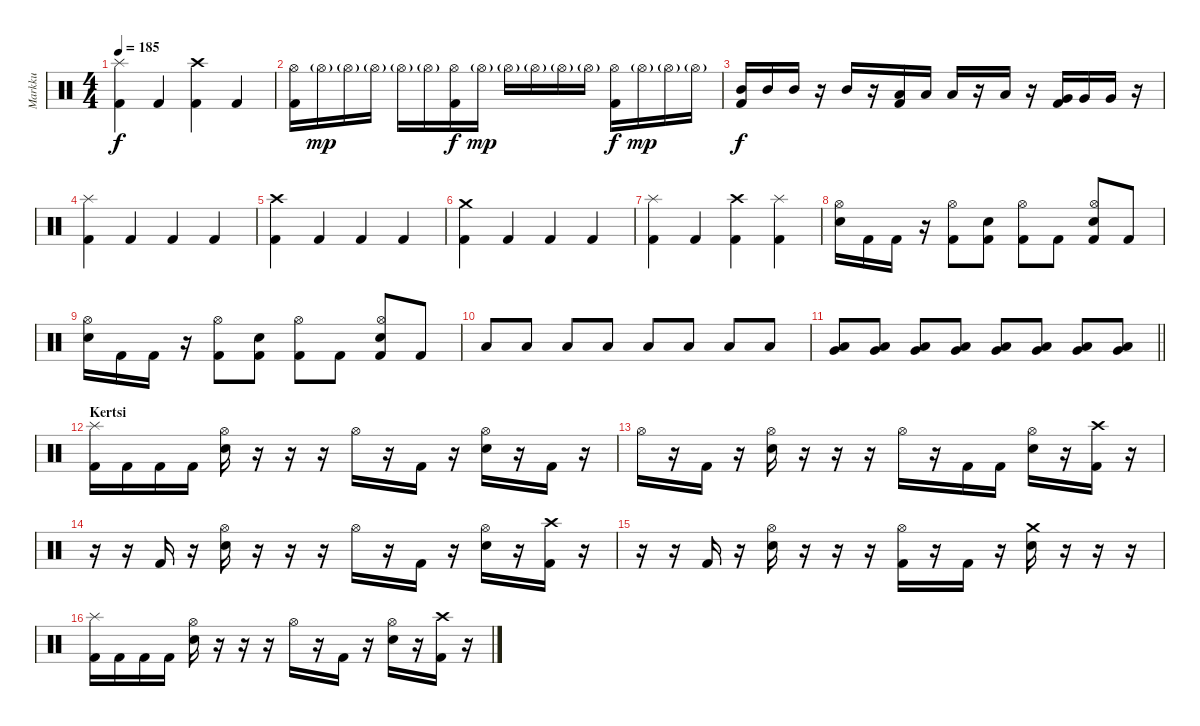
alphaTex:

\track ("Markku" "Markku") {instrument percussion}
\staff {score}
\articulation defaults
\ts (4 4)
\tempo 185
\clef neutral
\ks c
("Kick (hit) 2" "Splash (hit)").4{dy f} "Kick (hit) 2".4 ("Kick (hit) 2" "Crash high (hit)").4 "Kick (hit) 2".4 |
("Kick (hit) 2" "Hi-Hat (open)").16 "Hi-Hat (open)"{g}.16{dy mp} "Hi-Hat (open)"{g}.16 "Hi-Hat (open)"{g}.16 "Hi-Hat (open)"{g}.16 "Hi-Hat (open)"{g}.16 ("Kick (hit) 2" "Hi-Hat (open)").16{dy f} "Hi-Hat (open)"{g}.16{dy mp} "Hi-Hat (open)"{g}.16 "Hi-Hat (open)"{g}.16 "Hi-Hat (open)"{g}.16 "Hi-Hat (open)"{g}.16 ("Kick (hit) 2" "Hi-Hat (open)").16{dy f} "Hi-Hat (open)"{g}.16{dy mp} "Hi-Hat (open)"{g}.16 "Hi-Hat (open)"{g}.16 |
("Kick (hit) 2" "Mid Tom (hit)").16{dy f} "Mid Tom (hit)".16 "Mid Tom (hit)".16 r.16 "Mid Tom (hit)".16 r.16 ("Kick (hit) 2" "Low Tom (hit)").16 "Low Tom (hit)".16 "Low Tom (hit)".16 r.16 "Low Tom (hit)".16 r.16 ("Kick (hit) 2" "Very Low Tom (hit)").16 "Very Low Tom (hit)".16 "Very Low Tom (hit)".16 r.16 |
("Kick (hit) 2" "Splash (hit)").4 "Kick (hit) 2".4 "Kick (hit) 2".4 "Kick (hit) 2".4 |
("Kick (hit) 2" "Crash high (hit)").4 "Kick (hit) 2".4 "Kick (hit) 2".4 "Kick (hit) 2".4 |
("Kick (hit) 2" "Crash medium (hit)").4 "Kick (hit) 2".4 "Kick (hit) 2".4 "Kick (hit) 2".4 |
("Kick (hit) 2" "Splash (hit)").4 "Kick (hit) 2".4 ("Kick (hit) 2" "Crash high (hit)").4 ("Kick (hit) 2" "Splash (hit)").4 |
("Snare (hit) 2" "Hi-Hat (open)").16 "Kick (hit) 2".16 "Kick (hit) 2".16 r.16 ("Kick (hit) 2" "Hi-Hat (open)").8 ("Kick (hit) 2" "Snare (hit) 2").8 ("Kick (hit) 2" "Hi-Hat (open)").8 "Kick (hit) 2".8 ("Kick (hit) 2" "Snare (hit) 2" "Hi-Hat (open)").8 "Kick (hit) 2".8 |
("Snare (hit) 2" "Hi-Hat (open)").16 "Kick (hit) 2".16 "Kick (hit) 2".16 r.16 ("Kick (hit) 2" "Hi-Hat (open)").8 ("Kick (hit) 2" "Snare (hit) 2").8 ("Kick (hit) 2" "Hi-Hat (open)").8 "Kick (hit) 2".8 ("Kick (hit) 2" "Snare (hit) 2" "Hi-Hat (open)").8 "Kick (hit) 2".8 |
"Low Tom (hit)".8 "Low Tom (hit)".8 "Low Tom (hit)".8 "Low Tom (hit)".8 "Low Tom (hit)".8 "Low Tom (hit)".8 "Low Tom (hit)".8 "Low Tom (hit)".8 |
\barLineRight lightlight
("Low Tom (hit)" "Very Low Tom (hit)").8 ("Low Tom (hit)" "Very Low Tom (hit)").8 ("Low Tom (hit)" "Very Low Tom (hit)").8 ("Low Tom (hit)" "Very Low Tom (hit)").8 ("Low Tom (hit)" "Very Low Tom (hit)").8 ("Low Tom (hit)" "Very Low Tom (hit)").8 ("Low Tom (hit)" "Very Low Tom (hit)").8 ("Low Tom (hit)" "Very Low Tom (hit)").8 |
\section ("" "Kertsi")
("Kick (hit) 2" "Splash (hit)").16 "Kick (hit) 2".16 "Kick (hit) 2".16 "Kick (hit) 2".16 ("Snare (hit) 2" "Hi-Hat (open)").16 r.16 r.16 r.16 "Hi-Hat (open)".16 r.16 "Kick (hit) 2".16 r.16 ("Snare (hit) 2" "Hi-Hat (open)").16 r.16 "Kick (hit) 2".16 r.16 |
"Hi-Hat (open)".16 r.16 "Kick (hit) 2".16 r.16 ("Snare (hit) 2" "Hi-Hat (open)").16 r.16 r.16 r.16 "Hi-Hat (open)".16 r.16 "Kick (hit) 2".16 "Kick (hit) 2".16 ("Snare (hit) 2" "Hi-Hat (open)").16 r.16 ("Kick (hit) 2" "Crash high (hit)").16 r.16 |
r.16 r.16 "Kick (hit) 2".16 r.16 ("Snare (hit) 2" "Hi-Hat (open)").16 r.16 r.16 r.16 "Hi-Hat (open)".16 r.16 "Kick (hit) 2".16 r.16 ("Snare (hit) 2" "Hi-Hat (open)").16 r.16 ("Kick (hit) 2" "Crash high (hit)").16 r.16 |
r.16 r.16 "Kick (hit) 2".16 r.16 ("Snare (hit) 2" "Hi-Hat (open)").16 r.16 r.16 r.16 ("Kick (hit) 2" "Hi-Hat (open)").16 r.16 "Kick (hit) 2".16 r.16 ("Snare (hit) 2" "Crash medium (hit)").16 r.16 r.16 r.16 |
("Kick (hit) 2" "Splash (hit)").16 "Kick (hit) 2".16 "Kick (hit) 2".16 "Kick (hit) 2".16 ("Snare (hit) 2" "Hi-Hat (open)").16 r.16 r.16 r.16 "Hi-Hat (open)".16 r.16 "Kick (hit) 2".16 r.16 ("Snare (hit) 2" "Hi-Hat (open)").16 r.16 ("Kick (hit) 2" "Crash high (hit)").16 r.16
